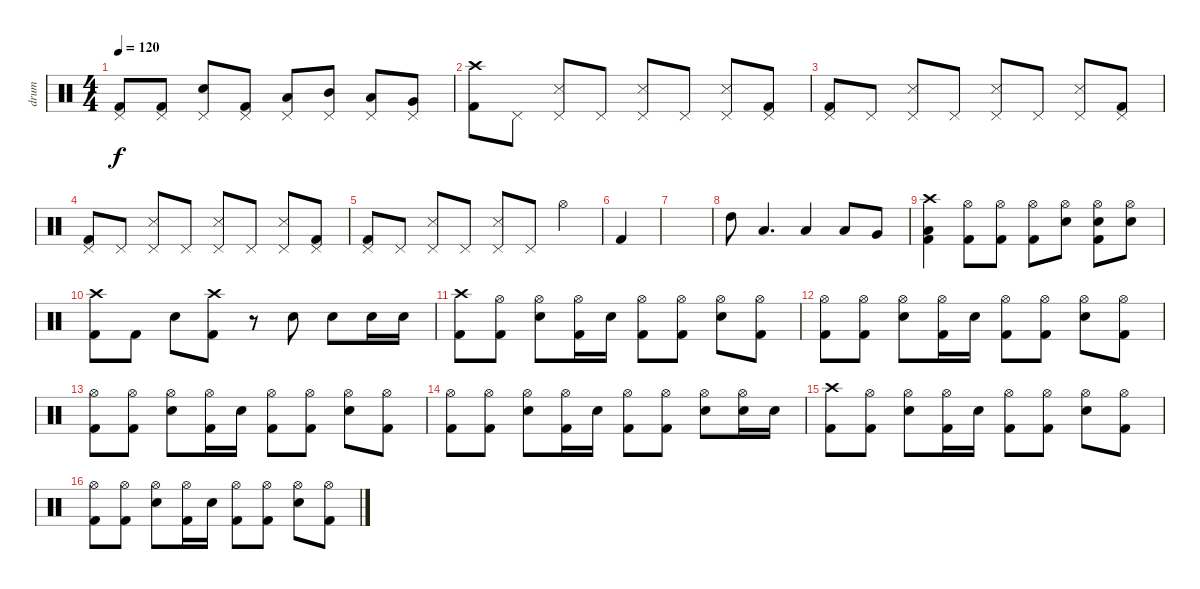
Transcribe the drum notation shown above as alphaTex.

\track ("drum" "drum") {instrument percussion}
\staff {score}
\articulation defaults
\ts (4 4)
\tempo 120
\clef neutral
\ks c
("Pedal Hi-Hat (hit)" "Kick (hit) 2").8{dy f} ("Pedal Hi-Hat (hit)" "Kick (hit) 2").8 ("Pedal Hi-Hat (hit)" "Snare (hit) 2").8 ("Pedal Hi-Hat (hit)" "Kick (hit) 2").8 ("Pedal Hi-Hat (hit)" "Low Floor Tom (hit)").8 ("Pedal Hi-Hat (hit)" "Mid Tom (hit)").8 ("Pedal Hi-Hat (hit)" "Low Tom (hit)").8 ("Pedal Hi-Hat (hit)" "Very Low Tom (hit)").8 |
("Crash high (hit)" "Kick (hit) 2").8 "Pedal Hi-Hat (hit)".8 ("Pedal Hi-Hat (hit)" "Snare (side stick) 3").8 "Pedal Hi-Hat (hit)".8 ("Pedal Hi-Hat (hit)" "Snare (side stick) 3").8 "Pedal Hi-Hat (hit)".8 ("Pedal Hi-Hat (hit)" "Snare (side stick) 3").8 ("Pedal Hi-Hat (hit)" "Kick (hit) 2").8 |
("Pedal Hi-Hat (hit)" "Kick (hit) 2").8 "Pedal Hi-Hat (hit)".8 ("Pedal Hi-Hat (hit)" "Snare (side stick) 3").8 "Pedal Hi-Hat (hit)".8 ("Pedal Hi-Hat (hit)" "Snare (side stick) 3").8 "Pedal Hi-Hat (hit)".8 ("Pedal Hi-Hat (hit)" "Snare (side stick) 3").8 ("Pedal Hi-Hat (hit)" "Kick (hit) 2").8 |
("Pedal Hi-Hat (hit)" "Kick (hit) 2").8 "Pedal Hi-Hat (hit)".8 ("Pedal Hi-Hat (hit)" "Snare (side stick) 3").8 "Pedal Hi-Hat (hit)".8 ("Pedal Hi-Hat (hit)" "Snare (side stick) 3").8 "Pedal Hi-Hat (hit)".8 ("Pedal Hi-Hat (hit)" "Snare (side stick) 3").8 ("Pedal Hi-Hat (hit)" "Kick (hit) 2").8 |
("Pedal Hi-Hat (hit)" "Kick (hit) 2").8 "Pedal Hi-Hat (hit)".8 ("Pedal Hi-Hat (hit)" "Snare (side stick) 3").8 "Pedal Hi-Hat (hit)".8 ("Pedal Hi-Hat (hit)" "Snare (side stick) 3").8 "Pedal Hi-Hat (hit)".8 "Hi-Hat (open)".4 |
"Kick (hit) 2".4 |
|
"High Tom (hit)".8 "Low Tom (hit)".4{d} "Low Floor Tom (hit)".4 "Low Tom (hit)".8 "Very Low Tom (hit)".8 |
("Crash high (hit)" "Low Floor Tom (hit)" "Kick (hit) 2").4 ("Hi-Hat (open)" "Kick (hit) 2").8{volume 3} ("Hi-Hat (open)" "Kick (hit) 2").8{volume 12} ("Hi-Hat (open)" "Kick (hit) 2").8 ("Hi-Hat (open)" "Snare (hit) 2").8 ("Hi-Hat (open)" "Snare (hit) 2" "Kick (hit) 2").8 ("Hi-Hat (open)" "Snare (hit) 2").8 |
("Crash high (hit)" "Kick (hit) 2").8 "Kick (hit) 2".8 "Snare (hit) 2".8 ("Crash high (hit)" "Kick (hit) 2").8 r.8 "Snare (hit) 2".8 "Snare (hit) 2".8 "Snare (hit) 2".16 "Snare (hit) 2".16 |
("Crash high (hit)" "Kick (hit) 2").8 ("Hi-Hat (open)" "Kick (hit) 2").8 ("Hi-Hat (open)" "Snare (hit) 2").8 ("Hi-Hat (open)" "Kick (hit) 2").16 "Snare (hit) 2".16 ("Hi-Hat (open)" "Kick (hit) 2").8 ("Hi-Hat (open)" "Kick (hit) 2").8 ("Hi-Hat (open)" "Snare (hit) 2").8 ("Hi-Hat (open)" "Kick (hit) 2").8 |
("Hi-Hat (open)" "Kick (hit) 2").8 ("Hi-Hat (open)" "Kick (hit) 2").8 ("Hi-Hat (open)" "Snare (hit) 2").8 ("Hi-Hat (open)" "Kick (hit) 2").16 "Snare (hit) 2".16 ("Hi-Hat (open)" "Kick (hit) 2").8 ("Hi-Hat (open)" "Kick (hit) 2").8 ("Hi-Hat (open)" "Snare (hit) 2").8 ("Hi-Hat (open)" "Kick (hit) 2").8 |
("Hi-Hat (open)" "Kick (hit) 2").8 ("Hi-Hat (open)" "Kick (hit) 2").8 ("Hi-Hat (open)" "Snare (hit) 2").8 ("Hi-Hat (open)" "Kick (hit) 2").16 "Snare (hit) 2".16 ("Hi-Hat (open)" "Kick (hit) 2").8 ("Hi-Hat (open)" "Kick (hit) 2").8 ("Hi-Hat (open)" "Snare (hit) 2").8 ("Hi-Hat (open)" "Kick (hit) 2").8 |
("Hi-Hat (open)" "Kick (hit) 2").8 ("Hi-Hat (open)" "Kick (hit) 2").8 ("Hi-Hat (open)" "Snare (hit) 2").8 ("Hi-Hat (open)" "Kick (hit) 2").16 "Snare (hit) 2".16 ("Hi-Hat (open)" "Kick (hit) 2").8 ("Hi-Hat (open)" "Kick (hit) 2").8 ("Hi-Hat (open)" "Snare (hit) 2").8 ("Hi-Hat (open)" "Snare (hit) 2").16 "Snare (hit) 2".16 |
("Crash high (hit)" "Kick (hit) 2").8 ("Hi-Hat (open)" "Kick (hit) 2").8 ("Hi-Hat (open)" "Snare (hit) 2").8 ("Hi-Hat (open)" "Kick (hit) 2").16 "Snare (hit) 2".16 ("Hi-Hat (open)" "Kick (hit) 2").8 ("Hi-Hat (open)" "Kick (hit) 2").8 ("Hi-Hat (open)" "Snare (hit) 2").8 ("Hi-Hat (open)" "Kick (hit) 2").8 |
("Hi-Hat (open)" "Kick (hit) 2").8 ("Hi-Hat (open)" "Kick (hit) 2").8 ("Hi-Hat (open)" "Snare (hit) 2").8 ("Hi-Hat (open)" "Kick (hit) 2").16 "Snare (hit) 2".16 ("Hi-Hat (open)" "Kick (hit) 2").8 ("Hi-Hat (open)" "Kick (hit) 2").8 ("Hi-Hat (open)" "Snare (hit) 2").8 ("Hi-Hat (open)" "Kick (hit) 2").8
